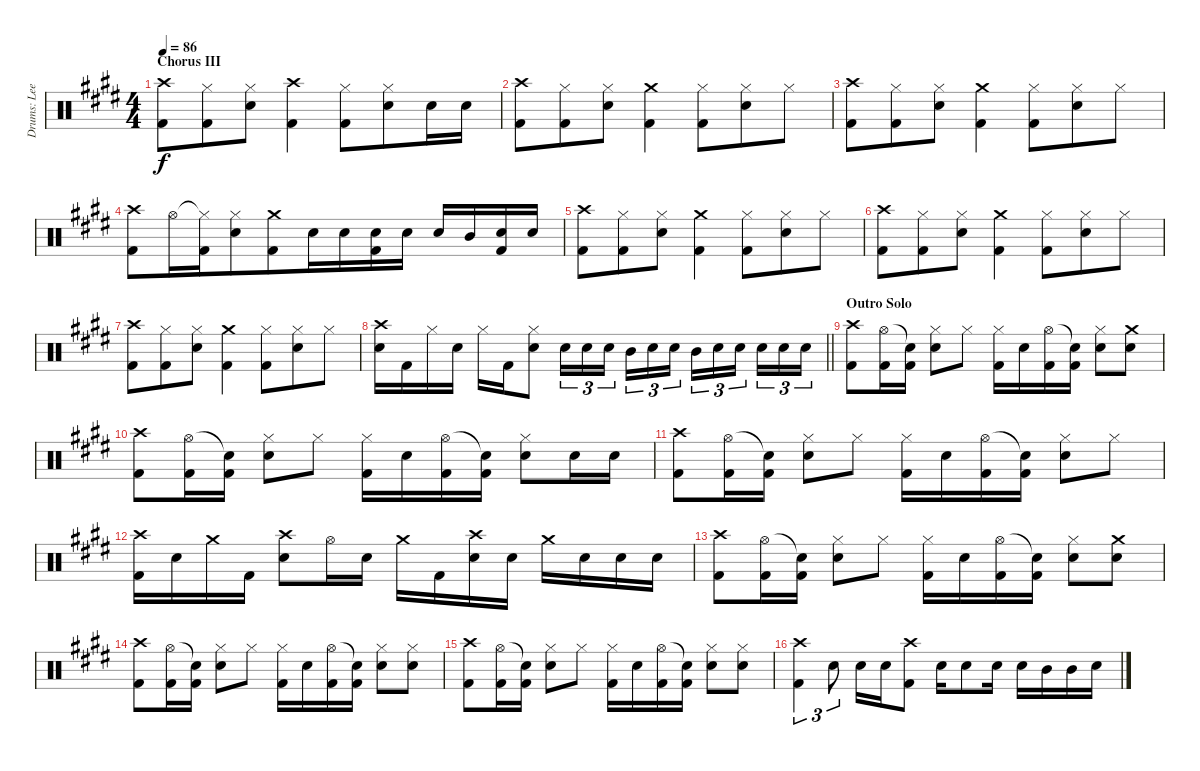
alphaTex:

\track ("Drums: Lee" "Drums: Lee") {instrument percussion}
\staff {score}
\articulation defaults
\ts (4 4)
\section ("" "Chorus III")
\tempo 86
\clef neutral
\ks c#minor
("Crash high (hit)" "Kick (hit) 2").8{dy f} ("Hi-Hat (closed)" "Kick (hit) 2").8{beam merge} ("Hi-Hat (closed)" "Snare (hit) 2").8 ("Crash high (hit)" "Kick (hit) 2").4 ("Hi-Hat (closed)" "Kick (hit) 2").8{beam merge} ("Hi-Hat (closed)" "Snare (hit) 2").8 "Snare (hit) 2".16 "Snare (hit) 2".16 |
("Crash high (hit)" "Kick (hit) 2").8 ("Hi-Hat (closed)" "Kick (hit) 2").8{beam merge} ("Hi-Hat (closed)" "Snare (hit) 2").8 ("Crash medium (hit)" "Kick (hit) 2").4 ("Hi-Hat (closed)" "Kick (hit) 2").8{beam merge} ("Hi-Hat (closed)" "Snare (hit) 2").8 "Hi-Hat (closed)".8 |
("Crash high (hit)" "Kick (hit) 2").8 ("Hi-Hat (closed)" "Kick (hit) 2").8{beam merge} ("Hi-Hat (closed)" "Snare (hit) 2").8 ("Crash medium (hit)" "Kick (hit) 2").4 ("Hi-Hat (closed)" "Kick (hit) 2").8{beam merge} ("Hi-Hat (closed)" "Snare (hit) 2").8 "Hi-Hat (closed)".8 |
("Crash high (hit)" "Kick (hit) 2").8 "Hi-Hat (open)".16 ("Hi-Hat (closed)"{t} "Kick (hit) 2").16{beam merge} ("Hi-Hat (closed)" "Snare (hit) 2").8 ("Crash medium (hit)" "Kick (hit) 2").8{beam merge} "Snare (hit) 2".16 "Snare (hit) 2".16 ("Snare (hit) 2" "Kick (hit) 2").16 "Snare (hit) 2".16 "Snare (hit) 2".16 "Mid Tom (hit)".16 ("Snare (hit) 2" "Kick (hit) 2").16 "Snare (hit) 2".16 |
("Crash high (hit)" "Kick (hit) 2").8 ("Hi-Hat (closed)" "Kick (hit) 2").8{beam merge} ("Hi-Hat (closed)" "Snare (hit) 2").8 ("Crash medium (hit)" "Kick (hit) 2").4 ("Hi-Hat (closed)" "Kick (hit) 2").8{beam merge} ("Hi-Hat (closed)" "Snare (hit) 2").8 "Hi-Hat (closed)".8 |
("Crash high (hit)" "Kick (hit) 2").8 ("Hi-Hat (closed)" "Kick (hit) 2").8{beam merge} ("Hi-Hat (closed)" "Snare (hit) 2").8 ("Crash medium (hit)" "Kick (hit) 2").4 ("Hi-Hat (closed)" "Kick (hit) 2").8{beam merge} ("Hi-Hat (closed)" "Snare (hit) 2").8 "Hi-Hat (closed)".8 |
("Crash high (hit)" "Kick (hit) 2").8 ("Hi-Hat (closed)" "Kick (hit) 2").8{beam merge} ("Hi-Hat (closed)" "Snare (hit) 2").8 ("Crash medium (hit)" "Kick (hit) 2").4 ("Hi-Hat (closed)" "Kick (hit) 2").8{beam merge} ("Hi-Hat (closed)" "Snare (hit) 2").8 "Hi-Hat (closed)".8 |
\barLineRight lightlight
("Crash high (hit)" "Snare (hit) 2").16 "Kick (hit) 2".16 "Hi-Hat (closed)".16 "Snare (hit) 2".16 "Hi-Hat (closed)".16 "Kick (hit) 2".16 ("Hi-Hat (closed)" "Snare (hit) 2").8 "Snare (hit) 2".16{tu (3 2)} "Snare (hit) 2".16{tu (3 2)} "Snare (hit) 2".16{tu (3 2) beam splitsecondary} "Mid Tom (hit)".16{tu (3 2)} "Snare (hit) 2".16{tu (3 2)} "Snare (hit) 2".16{tu (3 2)} "Mid Tom (hit)".16{tu (3 2)} "Snare (hit) 2".16{tu (3 2)} "Snare (hit) 2".16{tu (3 2) beam splitsecondary} "Snare (hit) 2".16{tu (3 2)} "Snare (hit) 2".16{tu (3 2)} "Snare (hit) 2".16{tu (3 2)} |
\section ("" "Outro Solo")
("Crash high (hit)" "Kick (hit) 2").8 ("Hi-Hat (open)" "Kick (hit) 2").16 ("Snare (hit)"{t} "Kick (hit) 2").16 ("Hi-Hat (closed)" "Snare (hit) 2").8 "Hi-Hat (closed)".8 ("Hi-Hat (closed)" "Kick (hit) 2").16 "Snare (hit) 2".16 ("Hi-Hat (open)" "Kick (hit) 2").16 ("Snare (hit)"{t} "Kick (hit) 2").16 ("Hi-Hat (closed)" "Snare (hit) 2").8 ("Crash medium (hit)" "Snare (hit) 2").8 |
("Crash high (hit)" "Kick (hit) 2").8 ("Hi-Hat (open)" "Kick (hit) 2").16 ("Snare (hit)"{t} "Kick (hit) 2").16 ("Hi-Hat (closed)" "Snare (hit) 2").8 "Hi-Hat (closed)".8 ("Hi-Hat (closed)" "Kick (hit) 2").16 "Snare (hit) 2".16 ("Hi-Hat (open)" "Kick (hit) 2").16 ("Snare (hit)"{t} "Kick (hit) 2").16 ("Hi-Hat (closed)" "Snare (hit) 2").8 "Snare (hit) 2".16 "Snare (hit) 2".16 |
("Crash high (hit)" "Kick (hit) 2").8 ("Hi-Hat (open)" "Kick (hit) 2").16 ("Snare (hit)"{t} "Kick (hit) 2").16 ("Hi-Hat (closed)" "Snare (hit) 2").8 "Hi-Hat (closed)".8 ("Hi-Hat (closed)" "Kick (hit) 2").16 "Snare (hit) 2".16 ("Hi-Hat (open)" "Kick (hit) 2").16 ("Snare (hit)"{t} "Kick (hit) 2").16 ("Hi-Hat (closed)" "Snare (hit) 2").8 "Hi-Hat (closed)".8 |
("Crash high (hit)" "Kick (hit) 2").16 "Snare (hit) 2".16 "Crash medium (hit)".16 "Kick (hit) 2".16 ("Crash high (hit)" "Snare (hit) 2").8 "Hi-Hat (open)".16 "Snare (hit) 2".16 "Crash medium (hit)".16 "Kick (hit) 2".16 ("Crash high (hit)" "Snare (hit) 2").16 "Snare (hit) 2".16 "Crash medium (hit)".16 "Snare (hit) 2".16 "Snare (hit) 2".16 "Snare (hit) 2".16 |
("Crash high (hit)" "Kick (hit) 2").8 ("Hi-Hat (open)" "Kick (hit) 2").16 ("Snare (hit)"{t} "Kick (hit) 2").16 ("Hi-Hat (closed)" "Snare (hit) 2").8 "Hi-Hat (closed)".8 ("Hi-Hat (closed)" "Kick (hit) 2").16 "Snare (hit) 2".16 ("Hi-Hat (open)" "Kick (hit) 2").16 ("Snare (hit)"{t} "Kick (hit) 2").16 ("Hi-Hat (closed)" "Snare (hit) 2").8 ("Crash medium (hit)" "Snare (hit) 2").8 |
("Crash high (hit)" "Kick (hit) 2").8 ("Hi-Hat (open)" "Kick (hit) 2").16 ("Snare (hit)"{t} "Kick (hit) 2").16 ("Hi-Hat (closed)" "Snare (hit) 2").8 "Hi-Hat (closed)".8 ("Hi-Hat (closed)" "Kick (hit) 2").16 "Snare (hit) 2".16 ("Hi-Hat (open)" "Kick (hit) 2").16 ("Snare (hit)"{t} "Kick (hit) 2").16 ("Hi-Hat (closed)" "Snare (hit) 2").8 ("Hi-Hat (closed)" "Snare (hit) 2").8 |
("Crash high (hit)" "Kick (hit) 2").8 ("Hi-Hat (open)" "Kick (hit) 2").16 ("Snare (hit)"{t} "Kick (hit) 2").16 ("Hi-Hat (closed)" "Snare (hit) 2").8 "Hi-Hat (closed)".8 ("Hi-Hat (closed)" "Kick (hit) 2").16 "Snare (hit) 2".16 ("Hi-Hat (open)" "Kick (hit) 2").16 ("Snare (hit)"{t} "Kick (hit) 2").16 ("Hi-Hat (closed)" "Snare (hit) 2").8 ("Hi-Hat (closed)" "Snare (hit) 2").8 |
("Crash high (hit)" "Kick (hit) 2").4{tu (3 2)} "Snare (hit) 2".8{tu (3 2)} "Snare (hit) 2".16 "Snare (hit) 2".16 ("Crash high (hit)" "Kick (hit) 2").8 "Snare (hit) 2".16 "Snare (hit) 2".8 "Snare (hit) 2".16 "Snare (hit) 2".16 "Mid Tom (hit)".16 "Mid Tom (hit)".16 "Snare (hit) 2".16
